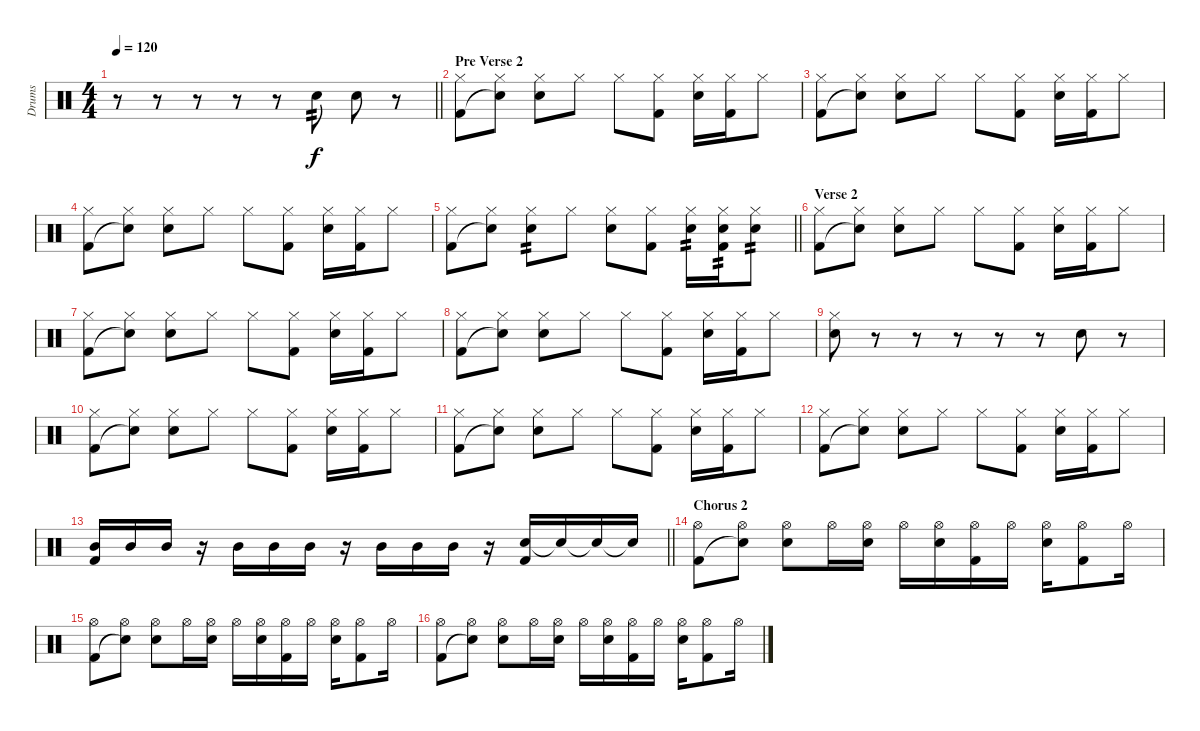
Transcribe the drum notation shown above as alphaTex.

\track ("Drums" "Drums") {instrument percussion}
\staff {score}
\articulation defaults
\ts (4 4)
\tempo 120
\clef neutral
\barLineRight lightlight
\ks c
r.8{dy f} r.8 r.8 r.8 r.8 "Electric Snare (hit)".8{tp 2} "Electric Snare (hit)".8 r.8 |
\section ("" "Pre Verse 2")
("Hi-Hat (closed)" "Kick (hit) 2").8 ("Hi-Hat (closed)" "Snare (hit)"{t}).8 ("Hi-Hat (closed)" "Electric Snare (hit)").8 "Hi-Hat (closed)".8 "Hi-Hat (closed)".8 ("Hi-Hat (closed)" "Kick (hit) 2").8 ("Hi-Hat (closed)" "Electric Snare (hit)").16 ("Hi-Hat (closed)" "Kick (hit) 2").16 "Hi-Hat (closed)".8 |
("Hi-Hat (closed)" "Kick (hit) 2").8 ("Hi-Hat (closed)" "Snare (hit)"{t}).8 ("Hi-Hat (closed)" "Electric Snare (hit)").8 "Hi-Hat (closed)".8 "Hi-Hat (closed)".8 ("Hi-Hat (closed)" "Kick (hit) 2").8 ("Hi-Hat (closed)" "Electric Snare (hit)").16 ("Hi-Hat (closed)" "Kick (hit) 2").16 "Hi-Hat (closed)".8 |
("Hi-Hat (closed)" "Kick (hit) 2").8 ("Hi-Hat (closed)" "Snare (hit)"{t}).8 ("Hi-Hat (closed)" "Electric Snare (hit)").8 "Hi-Hat (closed)".8 "Hi-Hat (closed)".8 ("Hi-Hat (closed)" "Kick (hit) 2").8 ("Hi-Hat (closed)" "Electric Snare (hit)").16 ("Hi-Hat (closed)" "Kick (hit) 2").16 "Hi-Hat (closed)".8 |
\barLineRight lightlight
("Hi-Hat (closed)" "Kick (hit) 2").8 ("Hi-Hat (closed)" "Snare (hit)"{t}).8 ("Hi-Hat (closed)" "Electric Snare (hit)").8{tp 2} "Hi-Hat (closed)".8 ("Hi-Hat (closed)" "Electric Snare (hit)").8 ("Hi-Hat (closed)" "Kick (hit) 2").8 ("Hi-Hat (closed)" "Electric Snare (hit)").16{tp 2} ("Hi-Hat (closed)" "Electric Snare (hit)" "Kick (hit) 2").16{tp 2} ("Hi-Hat (closed)" "Electric Snare (hit)").8{tp 2} |
\section ("" "Verse 2")
("Hi-Hat (closed)" "Kick (hit) 2").8 ("Hi-Hat (closed)" "Snare (hit)"{t}).8 ("Hi-Hat (closed)" "Electric Snare (hit)").8 "Hi-Hat (closed)".8 "Hi-Hat (closed)".8 ("Hi-Hat (closed)" "Kick (hit) 2").8 ("Hi-Hat (closed)" "Electric Snare (hit)").16 ("Hi-Hat (closed)" "Kick (hit) 2").16 "Hi-Hat (closed)".8 |
("Hi-Hat (closed)" "Kick (hit) 2").8 ("Hi-Hat (closed)" "Snare (hit)"{t}).8 ("Hi-Hat (closed)" "Electric Snare (hit)").8 "Hi-Hat (closed)".8 "Hi-Hat (closed)".8 ("Hi-Hat (closed)" "Kick (hit) 2").8 ("Hi-Hat (closed)" "Electric Snare (hit)").16 ("Hi-Hat (closed)" "Kick (hit) 2").16 "Hi-Hat (closed)".8 |
("Hi-Hat (closed)" "Kick (hit) 2").8 ("Hi-Hat (closed)" "Snare (hit)"{t}).8 ("Hi-Hat (closed)" "Electric Snare (hit)").8 "Hi-Hat (closed)".8 "Hi-Hat (closed)".8 ("Hi-Hat (closed)" "Kick (hit) 2").8 ("Hi-Hat (closed)" "Electric Snare (hit)").16 ("Hi-Hat (closed)" "Kick (hit) 2").16 "Hi-Hat (closed)".8 |
("Hi-Hat (closed)" "Electric Snare (hit)").8 r.8 r.8 r.8 r.8 r.8 "Electric Snare (hit)".8 r.8 |
("Hi-Hat (closed)" "Kick (hit) 2").8 ("Hi-Hat (closed)" "Snare (hit)"{t}).8 ("Hi-Hat (closed)" "Electric Snare (hit)").8 "Hi-Hat (closed)".8 "Hi-Hat (closed)".8 ("Hi-Hat (closed)" "Kick (hit) 2").8 ("Hi-Hat (closed)" "Electric Snare (hit)").16 ("Hi-Hat (closed)" "Kick (hit) 2").16 "Hi-Hat (closed)".8 |
("Hi-Hat (closed)" "Kick (hit) 2").8 ("Hi-Hat (closed)" "Snare (hit)"{t}).8 ("Hi-Hat (closed)" "Electric Snare (hit)").8 "Hi-Hat (closed)".8 "Hi-Hat (closed)".8 ("Hi-Hat (closed)" "Kick (hit) 2").8 ("Hi-Hat (closed)" "Electric Snare (hit)").16 ("Hi-Hat (closed)" "Kick (hit) 2").16 "Hi-Hat (closed)".8 |
("Hi-Hat (closed)" "Kick (hit) 2").8 ("Hi-Hat (closed)" "Snare (hit)"{t}).8 ("Hi-Hat (closed)" "Electric Snare (hit)").8 "Hi-Hat (closed)".8 "Hi-Hat (closed)".8 ("Hi-Hat (closed)" "Kick (hit) 2").8 ("Hi-Hat (closed)" "Electric Snare (hit)").16 ("Hi-Hat (closed)" "Kick (hit) 2").16 "Hi-Hat (closed)".8 |
\barLineRight lightlight
("Mid Tom (hit)" "Kick (hit) 2").16 "Mid Tom (hit)".16 "Mid Tom (hit)".16 r.16 "Mid Tom (hit)".16 "Mid Tom (hit)".16 "Mid Tom (hit)".16 r.16 "Mid Tom (hit)".16 "Mid Tom (hit)".16 "Mid Tom (hit)".16 r.16 ("Electric Snare (hit)" "Kick (hit) 2").16 "Electric Snare (hit)"{t}.16 "Electric Snare (hit)"{t}.16 "Snare (hit)"{t}.16 |
\section ("" "Chorus 2")
("Hi-Hat (open)" "Kick (hit) 2").8 ("Hi-Hat (open)" "Snare (hit)"{t}).8 ("Hi-Hat (open)" "Electric Snare (hit)").8 "Hi-Hat (open)".16 ("Hi-Hat (open)" "Electric Snare (hit)").16 "Hi-Hat (open)".16 ("Hi-Hat (open)" "Electric Snare (hit)").16 ("Hi-Hat (open)" "Kick (hit) 2").16 "Hi-Hat (open)".16 ("Hi-Hat (open)" "Electric Snare (hit)").16 ("Hi-Hat (open)" "Kick (hit) 2").8 "Hi-Hat (open)".16 |
("Hi-Hat (open)" "Kick (hit) 2").8 ("Hi-Hat (open)" "Snare (hit)"{t}).8 ("Hi-Hat (open)" "Electric Snare (hit)").8 "Hi-Hat (open)".16 ("Hi-Hat (open)" "Electric Snare (hit)").16 "Hi-Hat (open)".16 ("Hi-Hat (open)" "Electric Snare (hit)").16 ("Hi-Hat (open)" "Kick (hit) 2").16 "Hi-Hat (open)".16 ("Hi-Hat (open)" "Electric Snare (hit)").16 ("Hi-Hat (open)" "Kick (hit) 2").8 "Hi-Hat (open)".16 |
("Hi-Hat (open)" "Kick (hit) 2").8 ("Hi-Hat (open)" "Snare (hit)"{t}).8 ("Hi-Hat (open)" "Electric Snare (hit)").8 "Hi-Hat (open)".16 ("Hi-Hat (open)" "Electric Snare (hit)").16 "Hi-Hat (open)".16 ("Hi-Hat (open)" "Electric Snare (hit)").16 ("Hi-Hat (open)" "Kick (hit) 2").16 "Hi-Hat (open)".16 ("Hi-Hat (open)" "Electric Snare (hit)").16 ("Hi-Hat (open)" "Kick (hit) 2").8 "Hi-Hat (open)".16
